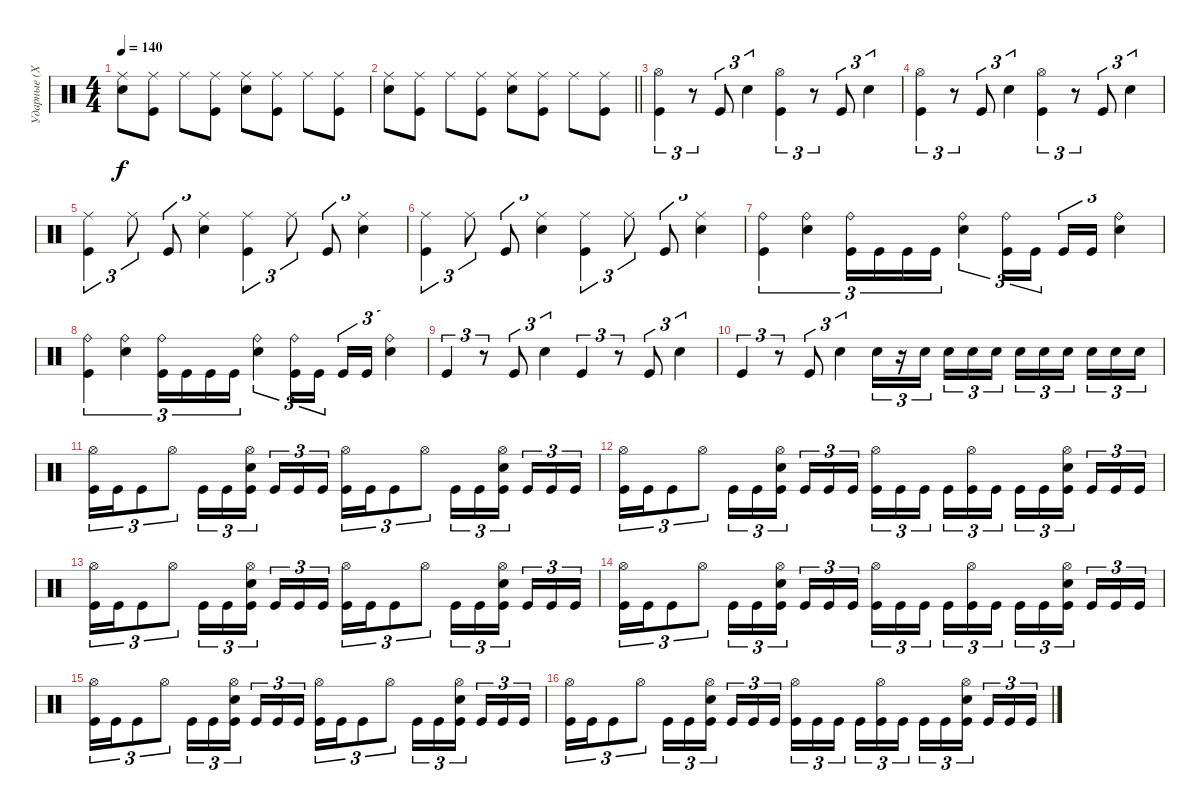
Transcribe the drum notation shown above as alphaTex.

\track ("Ударные (Хеллхаммер)" "Ударные (Х") {instrument percussion}
\staff {score}
\articulation defaults
\ts (4 4)
\tempo 140
\clef neutral
\ks c
("Ride (middle)" "Electric Snare (hit)").8{dy f} ("Ride (middle)" "Kick (hit)").8 "Ride (middle)".8 ("Ride (middle)" "Kick (hit)").8 ("Ride (middle)" "Electric Snare (hit)").8 ("Ride (middle)" "Kick (hit)").8 "Ride (middle)".8 ("Ride (middle)" "Kick (hit)").8 |
\barLineRight lightlight
("Ride (middle)" "Electric Snare (hit)").8 ("Ride (middle)" "Kick (hit)").8 "Ride (middle)".8 ("Ride (middle)" "Kick (hit)").8 ("Ride (middle)" "Electric Snare (hit)").8 ("Ride (middle)" "Kick (hit)").8 "Ride (middle)".8 ("Ride (middle)" "Kick (hit)").8 |
("Hi-Hat (open)" "Kick (hit)").4{tu (3 2)} r.8{tu (3 2)} "Kick (hit)".8{tu (3 2)} "Electric Snare (hit)".4{tu (3 2)} ("Hi-Hat (open)" "Kick (hit)").4{tu (3 2)} r.8{tu (3 2)} "Kick (hit)".8{tu (3 2)} "Electric Snare (hit)".4{tu (3 2)} |
("Hi-Hat (open)" "Kick (hit)").4{tu (3 2)} r.8{tu (3 2)} "Kick (hit)".8{tu (3 2)} "Electric Snare (hit)".4{tu (3 2)} ("Hi-Hat (open)" "Kick (hit)").4{tu (3 2)} r.8{tu (3 2)} "Kick (hit)".8{tu (3 2)} "Electric Snare (hit)".4{tu (3 2)} |
("Ride (middle)" "Kick (hit)").4{tu (3 2)} "Ride (middle)".8{tu (3 2)} "Kick (hit)".8{tu (3 2)} ("Electric Snare (hit)" "Ride (middle)").4{tu (3 2)} ("Ride (middle)" "Kick (hit)").4{tu (3 2)} "Ride (middle)".8{tu (3 2)} "Kick (hit)".8{tu (3 2)} ("Electric Snare (hit)" "Ride (middle)").4{tu (3 2)} |
("Ride (middle)" "Kick (hit)").4{tu (3 2)} "Ride (middle)".8{tu (3 2)} "Kick (hit)".8{tu (3 2)} ("Electric Snare (hit)" "Ride (middle)").4{tu (3 2)} ("Ride (middle)" "Kick (hit)").4{tu (3 2)} "Ride (middle)".8{tu (3 2)} "Kick (hit)".8{tu (3 2)} ("Electric Snare (hit)" "Ride (middle)").4{tu (3 2)} |
("Kick (hit)" "Ride (bell)").4{tu (3 2)} ("Electric Snare (hit)" "Ride (bell)").4{tu (3 2)} ("Kick (hit)" "Ride (bell)").16{tu (3 2)} "Kick (hit)".16{tu (3 2)} "Kick (hit)".16{tu (3 2)} "Kick (hit)".16{tu (3 2)} ("Electric Snare (hit)" "Ride (bell)").4{tu (3 2)} ("Kick (hit)" "Ride (bell)").16{tu (3 2)} "Kick (hit)".16{tu (3 2)} "Kick (hit)".16{tu (3 2)} "Kick (hit)".16{tu (3 2)} ("Electric Snare (hit)" "Ride (bell)").4{tu (3 2)} |
("Kick (hit)" "Ride (bell)").4{tu (3 2)} ("Electric Snare (hit)" "Ride (bell)").4{tu (3 2)} ("Kick (hit)" "Ride (bell)").16{tu (3 2)} "Kick (hit)".16{tu (3 2)} "Kick (hit)".16{tu (3 2)} "Kick (hit)".16{tu (3 2)} ("Electric Snare (hit)" "Ride (bell)").4{tu (3 2)} ("Kick (hit)" "Ride (bell)").16{tu (3 2)} "Kick (hit)".16{tu (3 2)} "Kick (hit)".16{tu (3 2)} "Kick (hit)".16{tu (3 2)} ("Electric Snare (hit)" "Ride (bell)").4{tu (3 2)} |
"Kick (hit)".4{tu (3 2)} r.8{tu (3 2)} "Kick (hit)".8{tu (3 2)} "Electric Snare (hit)".4{tu (3 2)} "Kick (hit)".4{tu (3 2)} r.8{tu (3 2)} "Kick (hit)".8{tu (3 2)} "Electric Snare (hit)".4{tu (3 2)} |
"Kick (hit)".4{tu (3 2)} r.8{tu (3 2)} "Kick (hit)".8{tu (3 2)} "Electric Snare (hit)".4{tu (3 2)} "Electric Snare (hit)".16{tu (3 2)} r.16{tu (3 2)} "Electric Snare (hit)".16{tu (3 2) beam splitsecondary} "Electric Snare (hit)".16{tu (3 2)} "Electric Snare (hit)".16{tu (3 2)} "Electric Snare (hit)".16{tu (3 2)} "Electric Snare (hit)".16{tu (3 2)} "Electric Snare (hit)".16{tu (3 2)} "Electric Snare (hit)".16{tu (3 2) beam splitsecondary} "Electric Snare (hit)".16{tu (3 2)} "Electric Snare (hit)".16{tu (3 2)} "Electric Snare (hit)".16{tu (3 2)} |
("Kick (hit)" "Hi-Hat (open)").16{tu (3 2)} "Kick (hit)".16{tu (3 2)} "Kick (hit)".8{tu (3 2)} "Hi-Hat (open)".8{tu (3 2)} "Kick (hit)".16{tu (3 2)} "Kick (hit)".16{tu (3 2)} ("Kick (hit)" "Hi-Hat (open)" "Electric Snare (hit)").16{tu (3 2) beam splitsecondary} "Kick (hit)".16{tu (3 2)} "Kick (hit)".16{tu (3 2)} "Kick (hit)".16{tu (3 2)} ("Kick (hit)" "Hi-Hat (open)").16{tu (3 2)} "Kick (hit)".16{tu (3 2)} "Kick (hit)".8{tu (3 2)} "Hi-Hat (open)".8{tu (3 2)} "Kick (hit)".16{tu (3 2)} "Kick (hit)".16{tu (3 2)} ("Kick (hit)" "Hi-Hat (open)" "Electric Snare (hit)").16{tu (3 2) beam splitsecondary} "Kick (hit)".16{tu (3 2)} "Kick (hit)".16{tu (3 2)} "Kick (hit)".16{tu (3 2)} |
("Kick (hit)" "Hi-Hat (open)").16{tu (3 2)} "Kick (hit)".16{tu (3 2)} "Kick (hit)".8{tu (3 2)} "Hi-Hat (open)".8{tu (3 2)} "Kick (hit)".16{tu (3 2)} "Kick (hit)".16{tu (3 2)} ("Kick (hit)" "Hi-Hat (open)" "Electric Snare (hit)").16{tu (3 2) beam splitsecondary} "Kick (hit)".16{tu (3 2)} "Kick (hit)".16{tu (3 2)} "Kick (hit)".16{tu (3 2)} ("Kick (hit)" "Hi-Hat (open)").16{tu (3 2)} "Kick (hit)".16{tu (3 2)} "Kick (hit)".16{tu (3 2) beam splitsecondary} "Kick (hit)".16{tu (3 2)} ("Kick (hit)" "Hi-Hat (open)").16{tu (3 2)} "Kick (hit)".16{tu (3 2)} "Kick (hit)".16{tu (3 2)} "Kick (hit)".16{tu (3 2)} ("Kick (hit)" "Hi-Hat (open)" "Electric Snare (hit)").16{tu (3 2) beam splitsecondary} "Kick (hit)".16{tu (3 2)} "Kick (hit)".16{tu (3 2)} "Kick (hit)".16{tu (3 2)} |
("Kick (hit)" "Hi-Hat (open)").16{tu (3 2)} "Kick (hit)".16{tu (3 2)} "Kick (hit)".8{tu (3 2)} "Hi-Hat (open)".8{tu (3 2)} "Kick (hit)".16{tu (3 2)} "Kick (hit)".16{tu (3 2)} ("Kick (hit)" "Hi-Hat (open)" "Electric Snare (hit)").16{tu (3 2) beam splitsecondary} "Kick (hit)".16{tu (3 2)} "Kick (hit)".16{tu (3 2)} "Kick (hit)".16{tu (3 2)} ("Kick (hit)" "Hi-Hat (open)").16{tu (3 2)} "Kick (hit)".16{tu (3 2)} "Kick (hit)".8{tu (3 2)} "Hi-Hat (open)".8{tu (3 2)} "Kick (hit)".16{tu (3 2)} "Kick (hit)".16{tu (3 2)} ("Kick (hit)" "Hi-Hat (open)" "Electric Snare (hit)").16{tu (3 2) beam splitsecondary} "Kick (hit)".16{tu (3 2)} "Kick (hit)".16{tu (3 2)} "Kick (hit)".16{tu (3 2)} |
("Kick (hit)" "Hi-Hat (open)").16{tu (3 2)} "Kick (hit)".16{tu (3 2)} "Kick (hit)".8{tu (3 2)} "Hi-Hat (open)".8{tu (3 2)} "Kick (hit)".16{tu (3 2)} "Kick (hit)".16{tu (3 2)} ("Kick (hit)" "Hi-Hat (open)" "Electric Snare (hit)").16{tu (3 2) beam splitsecondary} "Kick (hit)".16{tu (3 2)} "Kick (hit)".16{tu (3 2)} "Kick (hit)".16{tu (3 2)} ("Kick (hit)" "Hi-Hat (open)").16{tu (3 2)} "Kick (hit)".16{tu (3 2)} "Kick (hit)".16{tu (3 2) beam splitsecondary} "Kick (hit)".16{tu (3 2)} ("Kick (hit)" "Hi-Hat (open)").16{tu (3 2)} "Kick (hit)".16{tu (3 2)} "Kick (hit)".16{tu (3 2)} "Kick (hit)".16{tu (3 2)} ("Kick (hit)" "Hi-Hat (open)" "Electric Snare (hit)").16{tu (3 2) beam splitsecondary} "Kick (hit)".16{tu (3 2)} "Kick (hit)".16{tu (3 2)} "Kick (hit)".16{tu (3 2)} |
("Kick (hit)" "Hi-Hat (open)").16{tu (3 2)} "Kick (hit)".16{tu (3 2)} "Kick (hit)".8{tu (3 2)} "Hi-Hat (open)".8{tu (3 2)} "Kick (hit)".16{tu (3 2)} "Kick (hit)".16{tu (3 2)} ("Kick (hit)" "Hi-Hat (open)" "Electric Snare (hit)").16{tu (3 2) beam splitsecondary} "Kick (hit)".16{tu (3 2)} "Kick (hit)".16{tu (3 2)} "Kick (hit)".16{tu (3 2)} ("Kick (hit)" "Hi-Hat (open)").16{tu (3 2)} "Kick (hit)".16{tu (3 2)} "Kick (hit)".8{tu (3 2)} "Hi-Hat (open)".8{tu (3 2)} "Kick (hit)".16{tu (3 2)} "Kick (hit)".16{tu (3 2)} ("Kick (hit)" "Hi-Hat (open)" "Electric Snare (hit)").16{tu (3 2) beam splitsecondary} "Kick (hit)".16{tu (3 2)} "Kick (hit)".16{tu (3 2)} "Kick (hit)".16{tu (3 2)} |
("Kick (hit)" "Hi-Hat (open)").16{tu (3 2)} "Kick (hit)".16{tu (3 2)} "Kick (hit)".8{tu (3 2)} "Hi-Hat (open)".8{tu (3 2)} "Kick (hit)".16{tu (3 2)} "Kick (hit)".16{tu (3 2)} ("Kick (hit)" "Hi-Hat (open)" "Electric Snare (hit)").16{tu (3 2) beam splitsecondary} "Kick (hit)".16{tu (3 2)} "Kick (hit)".16{tu (3 2)} "Kick (hit)".16{tu (3 2)} ("Kick (hit)" "Hi-Hat (open)").16{tu (3 2)} "Kick (hit)".16{tu (3 2)} "Kick (hit)".16{tu (3 2) beam splitsecondary} "Kick (hit)".16{tu (3 2)} ("Kick (hit)" "Hi-Hat (open)").16{tu (3 2)} "Kick (hit)".16{tu (3 2)} "Kick (hit)".16{tu (3 2)} "Kick (hit)".16{tu (3 2)} ("Kick (hit)" "Hi-Hat (open)" "Electric Snare (hit)").16{tu (3 2) beam splitsecondary} "Kick (hit)".16{tu (3 2)} "Kick (hit)".16{tu (3 2)} "Kick (hit)".16{tu (3 2)}
